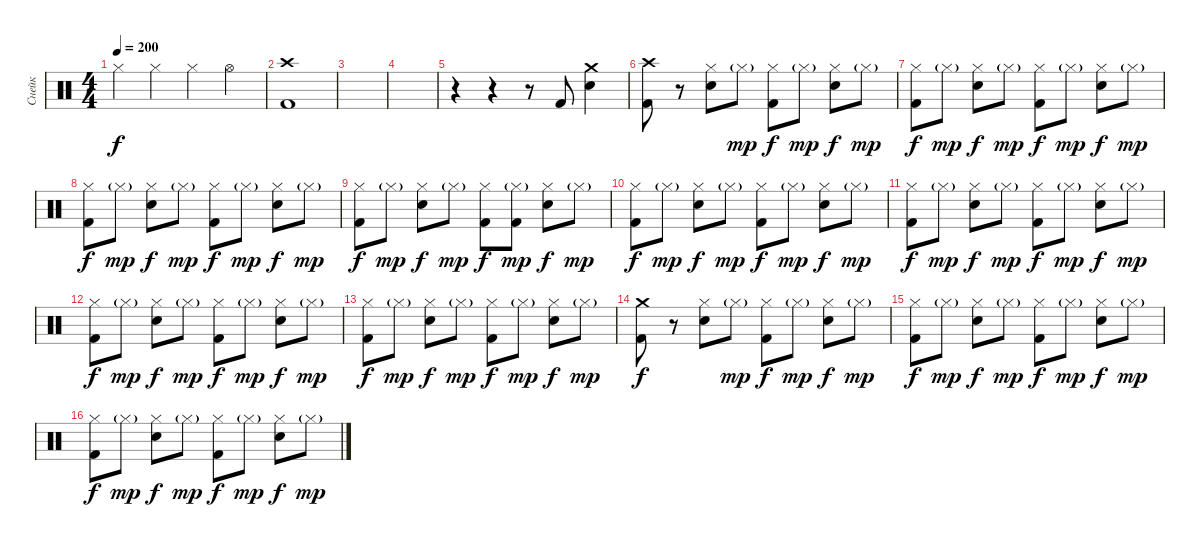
\track ("Снейк" "Снейк") {instrument percussion}
\staff {score}
\articulation defaults
\ts (4 4)
\tempo 200
\clef neutral
\ks c "Hi-Hat (closed)".4{dy f} "Hi-Hat (closed)".4 "Hi-Hat (closed)".4 "Hi-Hat (open)".4
|
("Crash high (hit)" "Kick (hit) 2").1 |
|
|
r.4 r.4 r.8 "Kick (hit) 2".8 ("Electric Snare (hit)" "Crash medium (hit)").4 |
("Crash high (hit)" "Kick (hit) 2").8 r.8 ("Hi-Hat (closed)" "Electric Snare (hit)").8 "Hi-Hat (closed)"{g}.8{dy mp} ("Hi-Hat (closed)" "Kick (hit) 2").8{dy f} "Hi-Hat (closed)"{g}.8{dy mp} ("Hi-Hat (closed)" "Electric Snare (hit)").8{dy f} "Hi-Hat (closed)"{g}.8{dy mp} |
("Hi-Hat (closed)" "Kick (hit) 2").8{dy f} "Hi-Hat (closed)"{g}.8{dy mp} ("Hi-Hat (closed)" "Electric Snare (hit)").8{dy f} "Hi-Hat (closed)"{g}.8{dy mp} ("Hi-Hat (closed)" "Kick (hit) 2").8{dy f} "Hi-Hat (closed)"{g}.8{dy mp} ("Hi-Hat (closed)" "Electric Snare (hit)").8{dy f} "Hi-Hat (closed)"{g}.8{dy mp} |
("Hi-Hat (closed)" "Kick (hit) 2").8{dy f} "Hi-Hat (closed)"{g}.8{dy mp} ("Hi-Hat (closed)" "Electric Snare (hit)").8{dy f} "Hi-Hat (closed)"{g}.8{dy mp} ("Hi-Hat (closed)" "Kick (hit) 2").8{dy f} "Hi-Hat (closed)"{g}.8{dy mp} ("Hi-Hat (closed)" "Electric Snare (hit)").8{dy f} "Hi-Hat (closed)"{g}.8{dy mp} |
("Hi-Hat (closed)" "Kick (hit) 2").8{dy f} "Hi-Hat (closed)"{g}.8{dy mp} ("Hi-Hat (closed)" "Electric Snare (hit)").8{dy f} "Hi-Hat (closed)"{g}.8{dy mp} ("Hi-Hat (closed)" "Kick (hit) 2").8{dy f} ("Hi-Hat (closed)"{g} "Kick (hit) 2").8{dy mp} ("Hi-Hat (closed)" "Electric Snare (hit)").8{dy f} "Hi-Hat (closed)"{g}.8{dy mp} |
("Hi-Hat (closed)" "Kick (hit) 2").8{dy f} "Hi-Hat (closed)"{g}.8{dy mp} ("Hi-Hat (closed)" "Electric Snare (hit)").8{dy f} "Hi-Hat (closed)"{g}.8{dy mp} ("Hi-Hat (closed)" "Kick (hit) 2").8{dy f} "Hi-Hat (closed)"{g}.8{dy mp} ("Hi-Hat (closed)" "Electric Snare (hit)").8{dy f} "Hi-Hat (closed)"{g}.8{dy mp} |
("Hi-Hat (closed)" "Kick (hit) 2").8{dy f} "Hi-Hat (closed)"{g}.8{dy mp} ("Hi-Hat (closed)" "Electric Snare (hit)").8{dy f} "Hi-Hat (closed)"{g}.8{dy mp} ("Hi-Hat (closed)" "Kick (hit) 2").8{dy f} "Hi-Hat (closed)"{g}.8{dy mp} ("Hi-Hat (closed)" "Electric Snare (hit)").8{dy f} "Hi-Hat (closed)"{g}.8{dy mp} |
("Hi-Hat (closed)" "Kick (hit) 2").8{dy f} "Hi-Hat (closed)"{g}.8{dy mp} ("Hi-Hat (closed)" "Electric Snare (hit)").8{dy f} "Hi-Hat (closed)"{g}.8{dy mp} ("Hi-Hat (closed)" "Kick (hit) 2").8{dy f} "Hi-Hat (closed)"{g}.8{dy mp} ("Hi-Hat (closed)" "Electric Snare (hit)").8{dy f} "Hi-Hat (closed)"{g}.8{dy mp} |
("Hi-Hat (closed)" "Kick (hit) 2").8{dy f} "Hi-Hat (closed)"{g}.8{dy mp} ("Hi-Hat (closed)" "Electric Snare (hit)").8{dy f} "Hi-Hat (closed)"{g}.8{dy mp} ("Hi-Hat (closed)" "Kick (hit) 2").8{dy f} "Hi-Hat (closed)"{g}.8{dy mp} ("Hi-Hat (closed)" "Electric Snare (hit)").8{dy f} "Hi-Hat (closed)"{g}.8{dy mp} |
("Crash medium (hit)" "Kick (hit) 2").8{dy f} r.8 ("Hi-Hat (closed)" "Electric Snare (hit)").8 "Hi-Hat (closed)"{g}.8{dy mp} ("Hi-Hat (closed)" "Kick (hit) 2").8{dy f} "Hi-Hat (closed)"{g}.8{dy mp} ("Hi-Hat (closed)" "Electric Snare (hit)").8{dy f} "Hi-Hat (closed)"{g}.8{dy mp} |
("Hi-Hat (closed)" "Kick (hit) 2").8{dy f} "Hi-Hat (closed)"{g}.8{dy mp} ("Hi-Hat (closed)" "Electric Snare (hit)").8{dy f} "Hi-Hat (closed)"{g}.8{dy mp} ("Hi-Hat (closed)" "Kick (hit) 2").8{dy f} "Hi-Hat (closed)"{g}.8{dy mp} ("Hi-Hat (closed)" "Electric Snare (hit)").8{dy f} "Hi-Hat (closed)"{g}.8{dy mp} |
("Hi-Hat (closed)" "Kick (hit) 2").8{dy f} "Hi-Hat (closed)"{g}.8{dy mp} ("Hi-Hat (closed)" "Electric Snare (hit)").8{dy f} "Hi-Hat (closed)"{g}.8{dy mp} ("Hi-Hat (closed)" "Kick (hit) 2").8{dy f} "Hi-Hat (closed)"{g}.8{dy mp} ("Hi-Hat (closed)" "Electric Snare (hit)").8{dy f} "Hi-Hat (closed)"{g}.8{dy mp}
